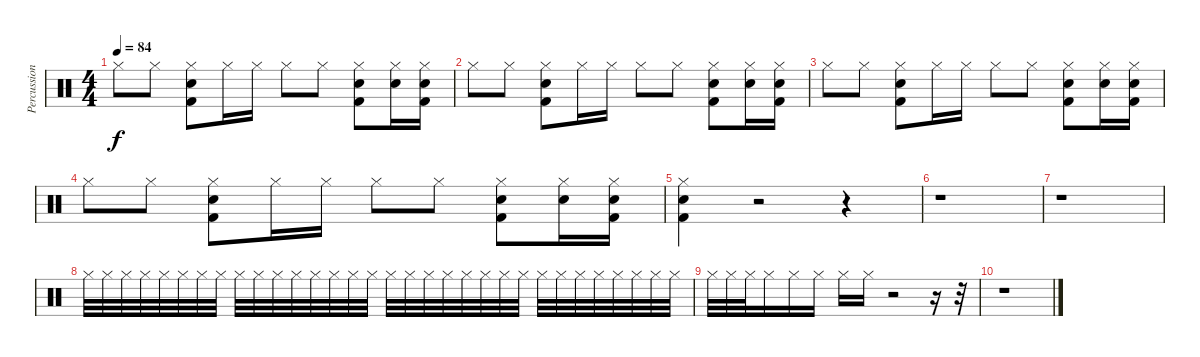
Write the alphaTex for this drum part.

\track ("Percussion" "Percussion") {instrument percussion}
\staff {score}
\articulation defaults
\ts (4 4)
\tempo 84
\clef neutral
\ks c "Hi-Hat (closed)".8{dy f} "Hi-Hat (closed)".8
("Hi-Hat (closed)" "Snare (hit) 2" "Kick (hit) 2").8 "Hi-Hat (closed)".16 "Hi-Hat (closed)".16 "Hi-Hat (closed)".8 "Hi-Hat (closed)".8 ("Hi-Hat (closed)" "Snare (hit) 2" "Kick (hit) 2").8 ("Hi-Hat (closed)" "Snare (hit) 2").16 ("Hi-Hat (closed)" "Snare (hit) 2" "Kick (hit) 2").16 |
"Hi-Hat (closed)".8 "Hi-Hat (closed)".8 ("Hi-Hat (closed)" "Snare (hit) 2" "Kick (hit) 2").8 "Hi-Hat (closed)".16 "Hi-Hat (closed)".16 "Hi-Hat (closed)".8 "Hi-Hat (closed)".8 ("Hi-Hat (closed)" "Snare (hit) 2" "Kick (hit) 2").8 ("Hi-Hat (closed)" "Snare (hit) 2").16 ("Hi-Hat (closed)" "Snare (hit) 2" "Kick (hit) 2").16 |
"Hi-Hat (closed)".8 "Hi-Hat (closed)".8 ("Hi-Hat (closed)" "Snare (hit) 2" "Kick (hit) 2").8 "Hi-Hat (closed)".16 "Hi-Hat (closed)".16 "Hi-Hat (closed)".8 "Hi-Hat (closed)".8 ("Hi-Hat (closed)" "Snare (hit) 2" "Kick (hit) 2").8 ("Hi-Hat (closed)" "Snare (hit) 2").16 ("Hi-Hat (closed)" "Snare (hit) 2" "Kick (hit) 2").16 |
"Hi-Hat (closed)".8 "Hi-Hat (closed)".8 ("Hi-Hat (closed)" "Snare (hit) 2" "Kick (hit) 2").8 "Hi-Hat (closed)".16 "Hi-Hat (closed)".16 "Hi-Hat (closed)".8 "Hi-Hat (closed)".8 ("Hi-Hat (closed)" "Snare (hit) 2" "Kick (hit) 2").8 ("Hi-Hat (closed)" "Snare (hit) 2").16 ("Hi-Hat (closed)" "Snare (hit) 2" "Kick (hit) 2").16 |
("Hi-Hat (closed)" "Snare (hit) 2" "Kick (hit) 2").4 r.2 r.4 |
r.1 |
r.1 |
"Hi-Hat (closed)".32 "Hi-Hat (closed)".32 "Hi-Hat (closed)".32 "Hi-Hat (closed)".32 "Hi-Hat (closed)".32 "Hi-Hat (closed)".32 "Hi-Hat (closed)".32 "Hi-Hat (closed)".32 "Hi-Hat (closed)".32 "Hi-Hat (closed)".32 "Hi-Hat (closed)".32 "Hi-Hat (closed)".32 "Hi-Hat (closed)".32 "Hi-Hat (closed)".32 "Hi-Hat (closed)".32 "Hi-Hat (closed)".32 "Hi-Hat (closed)".32 "Hi-Hat (closed)".32 "Hi-Hat (closed)".32 "Hi-Hat (closed)".32 "Hi-Hat (closed)".32 "Hi-Hat (closed)".32 "Hi-Hat (closed)".32 "Hi-Hat (closed)".32 "Hi-Hat (closed)".32 "Hi-Hat (closed)".32 "Hi-Hat (closed)".32 "Hi-Hat (closed)".32 "Hi-Hat (closed)".32 "Hi-Hat (closed)".32 "Hi-Hat (closed)".32 "Hi-Hat (closed)".32 |
"Hi-Hat (closed)".32 "Hi-Hat (closed)".32 "Hi-Hat (closed)".32 "Hi-Hat (closed)".16 "Hi-Hat (closed)".16 "Hi-Hat (closed)".16 "Hi-Hat (closed)".16 "Hi-Hat (closed)".16 r.2 r.16 r.32 |
r.1
